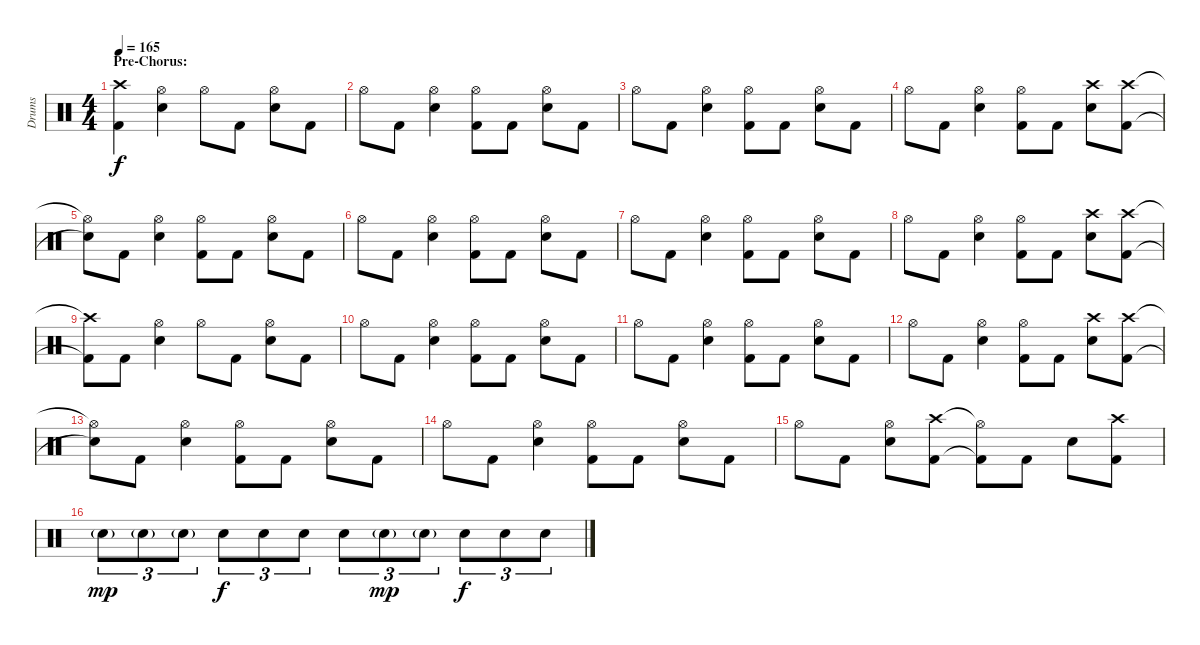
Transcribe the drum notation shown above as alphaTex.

\track ("Drums" "Drums") {instrument percussion}
\staff {score}
\articulation defaults
\ts (4 4)
\section ("" "Pre-Chorus:")
\tempo 165
\clef neutral
\ks c
("Crash high (hit)" "Kick (hit) 2").4{dy f} ("Hi-Hat (open)" "Electric Snare (hit)").4 "Hi-Hat (open)".8 "Kick (hit) 2".8 ("Hi-Hat (open)" "Electric Snare (hit)").8 "Kick (hit) 2".8 |
"Hi-Hat (open)".8 "Kick (hit) 2".8 ("Hi-Hat (open)" "Electric Snare (hit)").4 ("Hi-Hat (open)" "Kick (hit) 2").8 "Kick (hit) 2".8 ("Hi-Hat (open)" "Electric Snare (hit)").8 "Kick (hit) 2".8 |
"Hi-Hat (open)".8 "Kick (hit) 2".8 ("Hi-Hat (open)" "Electric Snare (hit)").4 ("Hi-Hat (open)" "Kick (hit) 2").8 "Kick (hit) 2".8 ("Hi-Hat (open)" "Electric Snare (hit)").8 "Kick (hit) 2".8 |
"Hi-Hat (open)".8 "Kick (hit) 2".8 ("Hi-Hat (open)" "Electric Snare (hit)").4 ("Hi-Hat (open)" "Kick (hit) 2").8 "Kick (hit) 2".8 ("Crash high (hit)" "Electric Snare (hit)").8 ("Crash high (hit)" "Kick (hit) 2").8 |
("Hi-Hat (open)"{t} "Snare (hit)"{t}).8 "Kick (hit) 2".8 ("Hi-Hat (open)" "Electric Snare (hit)").4 ("Hi-Hat (open)" "Kick (hit) 2").8 "Kick (hit) 2".8 ("Hi-Hat (open)" "Electric Snare (hit)").8 "Kick (hit) 2".8 |
"Hi-Hat (open)".8 "Kick (hit) 2".8 ("Hi-Hat (open)" "Electric Snare (hit)").4 ("Hi-Hat (open)" "Kick (hit) 2").8 "Kick (hit) 2".8 ("Hi-Hat (open)" "Electric Snare (hit)").8 "Kick (hit) 2".8 |
"Hi-Hat (open)".8 "Kick (hit) 2".8 ("Hi-Hat (open)" "Electric Snare (hit)").4 ("Hi-Hat (open)" "Kick (hit) 2").8 "Kick (hit) 2".8 ("Hi-Hat (open)" "Electric Snare (hit)").8 "Kick (hit) 2".8 |
"Hi-Hat (open)".8 "Kick (hit) 2".8 ("Hi-Hat (open)" "Electric Snare (hit)").4 ("Hi-Hat (open)" "Kick (hit) 2").8 "Kick (hit) 2".8 ("Crash high (hit)" "Electric Snare (hit)").8 ("Crash high (hit)" "Kick (hit) 2").8 |
("Crash high (hit)"{t} "Kick (hit) 2"{t}).8 "Kick (hit) 2".8 ("Hi-Hat (open)" "Electric Snare (hit)").4 "Hi-Hat (open)".8 "Kick (hit) 2".8 ("Hi-Hat (open)" "Electric Snare (hit)").8 "Kick (hit) 2".8 |
"Hi-Hat (open)".8 "Kick (hit) 2".8 ("Hi-Hat (open)" "Electric Snare (hit)").4 ("Hi-Hat (open)" "Kick (hit) 2").8 "Kick (hit) 2".8 ("Hi-Hat (open)" "Electric Snare (hit)").8 "Kick (hit) 2".8 |
"Hi-Hat (open)".8 "Kick (hit) 2".8 ("Hi-Hat (open)" "Electric Snare (hit)").4 ("Hi-Hat (open)" "Kick (hit) 2").8 "Kick (hit) 2".8 ("Hi-Hat (open)" "Electric Snare (hit)").8 "Kick (hit) 2".8 |
"Hi-Hat (open)".8 "Kick (hit) 2".8 ("Hi-Hat (open)" "Electric Snare (hit)").4 ("Hi-Hat (open)" "Kick (hit) 2").8 "Kick (hit) 2".8 ("Crash high (hit)" "Electric Snare (hit)").8 ("Crash high (hit)" "Kick (hit) 2").8 |
("Hi-Hat (open)"{t} "Snare (hit)"{t}).8 "Kick (hit) 2".8 ("Hi-Hat (open)" "Electric Snare (hit)").4 ("Hi-Hat (open)" "Kick (hit) 2").8 "Kick (hit) 2".8 ("Hi-Hat (open)" "Electric Snare (hit)").8 "Kick (hit) 2".8 |
"Hi-Hat (open)".8 "Kick (hit) 2".8 ("Hi-Hat (open)" "Electric Snare (hit)").4 ("Hi-Hat (open)" "Kick (hit) 2").8 "Kick (hit) 2".8 ("Hi-Hat (open)" "Electric Snare (hit)").8 "Kick (hit) 2".8 |
"Hi-Hat (open)".8 "Kick (hit) 2".8 ("Hi-Hat (open)" "Electric Snare (hit)").8 ("Crash high (hit)" "Kick (hit) 2").8 ("Hi-Hat (open)"{t} "Kick (hit) 2"{t}).8 "Kick (hit) 2".8 "Electric Snare (hit)".8 ("Crash high (hit)" "Kick (hit) 2").8 |
"Electric Snare (hit)"{g}.8{tu (3 2) dy mp} "Electric Snare (hit)"{g}.8{tu (3 2)} "Electric Snare (hit)"{g}.8{tu (3 2)} "Electric Snare (hit)".8{tu (3 2) dy f} "Electric Snare (hit)".8{tu (3 2)} "Electric Snare (hit)".8{tu (3 2)} "Electric Snare (hit)".8{tu (3 2)} "Electric Snare (hit)"{g}.8{tu (3 2) dy mp} "Electric Snare (hit)"{g}.8{tu (3 2)} "Electric Snare (hit)".8{tu (3 2) dy f} "Electric Snare (hit)".8{tu (3 2)} "Electric Snare (hit)".8{tu (3 2)}
